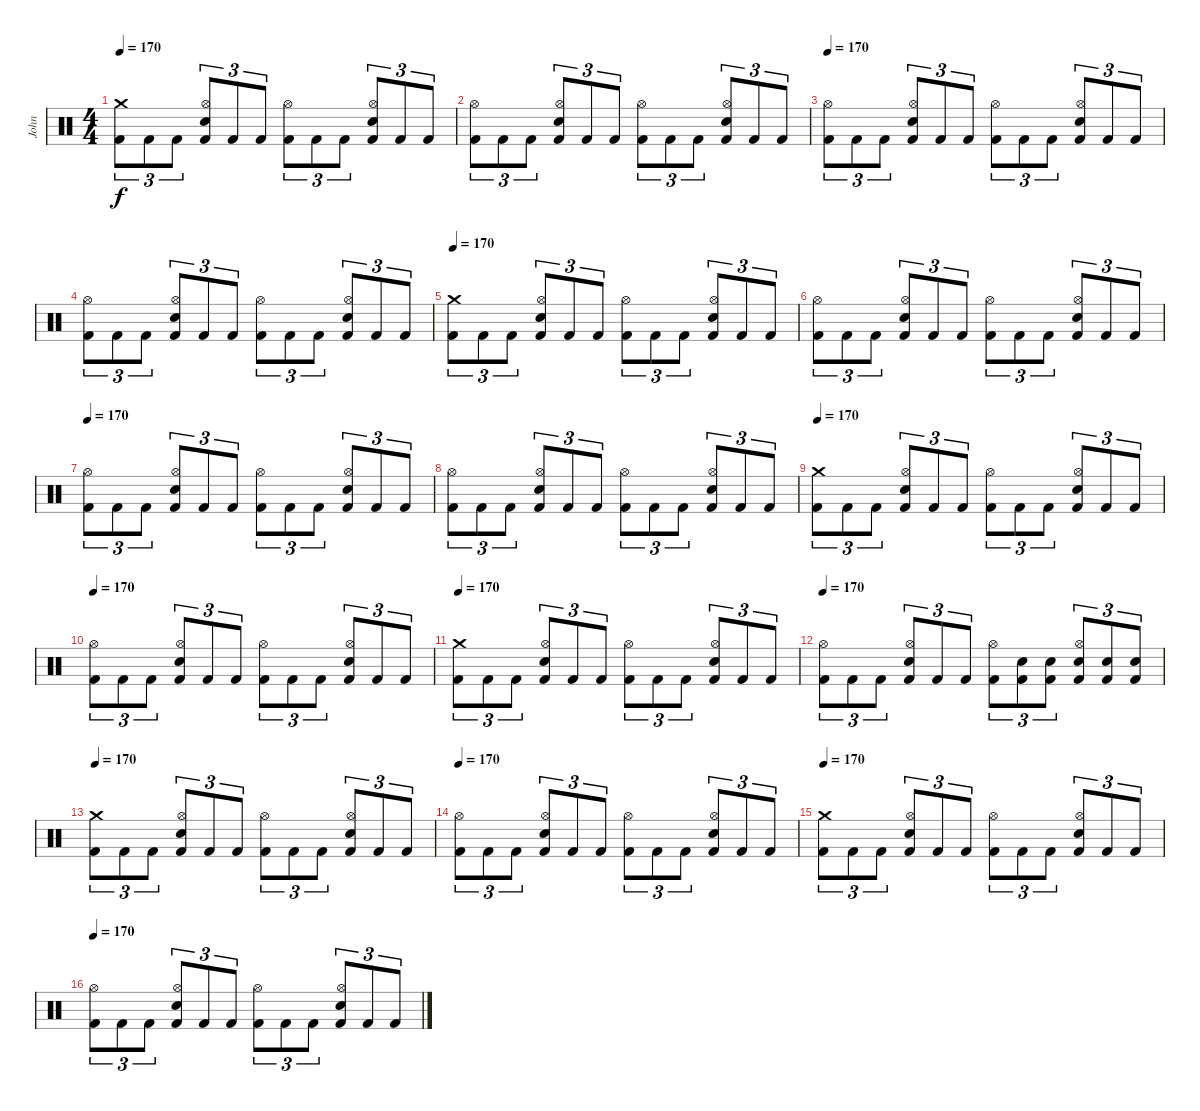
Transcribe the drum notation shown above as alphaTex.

\track ("John " "John ") {instrument percussion}
\staff {score}
\articulation defaults
\ts (4 4)
\tempo 170
\clef neutral
\ks c
("Crash medium (hit)" "Kick (hit) 2").8{tu (3 2) dy f} "Kick (hit) 2".8{tu (3 2)} "Kick (hit) 2".8{tu (3 2)} ("Hi-Hat (open)" "Kick (hit) 2" "Snare (hit) 2").8{tu (3 2)} "Kick (hit) 2".8{tu (3 2)} "Kick (hit) 2".8{tu (3 2)} ("Hi-Hat (open)" "Kick (hit) 2").8{tu (3 2)} "Kick (hit) 2".8{tu (3 2)} "Kick (hit) 2".8{tu (3 2)} ("Hi-Hat (open)" "Kick (hit) 2" "Snare (hit) 2").8{tu (3 2)} "Kick (hit) 2".8{tu (3 2)} "Kick (hit) 2".8{tu (3 2)} |
("Hi-Hat (open)" "Kick (hit) 2").8{tu (3 2)} "Kick (hit) 2".8{tu (3 2)} "Kick (hit) 2".8{tu (3 2)} ("Hi-Hat (open)" "Kick (hit) 2" "Snare (hit) 2").8{tu (3 2)} "Kick (hit) 2".8{tu (3 2)} "Kick (hit) 2".8{tu (3 2)} ("Hi-Hat (open)" "Kick (hit) 2").8{tu (3 2)} "Kick (hit) 2".8{tu (3 2)} "Kick (hit) 2".8{tu (3 2)} ("Hi-Hat (open)" "Kick (hit) 2" "Snare (hit) 2").8{tu (3 2)} "Kick (hit) 2".8{tu (3 2)} "Kick (hit) 2".8{tu (3 2)} |
\tempo 170
("Hi-Hat (open)" "Kick (hit) 2").8{tu (3 2)} "Kick (hit) 2".8{tu (3 2)} "Kick (hit) 2".8{tu (3 2)} ("Hi-Hat (open)" "Kick (hit) 2" "Snare (hit) 2").8{tu (3 2)} "Kick (hit) 2".8{tu (3 2)} "Kick (hit) 2".8{tu (3 2)} ("Hi-Hat (open)" "Kick (hit) 2").8{tu (3 2)} "Kick (hit) 2".8{tu (3 2)} "Kick (hit) 2".8{tu (3 2)} ("Hi-Hat (open)" "Kick (hit) 2" "Snare (hit) 2").8{tu (3 2)} "Kick (hit) 2".8{tu (3 2)} "Kick (hit) 2".8{tu (3 2)} |
("Hi-Hat (open)" "Kick (hit) 2").8{tu (3 2)} "Kick (hit) 2".8{tu (3 2)} "Kick (hit) 2".8{tu (3 2)} ("Hi-Hat (open)" "Kick (hit) 2" "Snare (hit) 2").8{tu (3 2)} "Kick (hit) 2".8{tu (3 2)} "Kick (hit) 2".8{tu (3 2)} ("Hi-Hat (open)" "Kick (hit) 2").8{tu (3 2)} "Kick (hit) 2".8{tu (3 2)} "Kick (hit) 2".8{tu (3 2)} ("Hi-Hat (open)" "Kick (hit) 2" "Snare (hit) 2").8{tu (3 2)} "Kick (hit) 2".8{tu (3 2)} "Kick (hit) 2".8{tu (3 2)} |
\tempo 170
("Crash medium (hit)" "Kick (hit) 2").8{tu (3 2)} "Kick (hit) 2".8{tu (3 2)} "Kick (hit) 2".8{tu (3 2)} ("Hi-Hat (open)" "Kick (hit) 2" "Snare (hit) 2").8{tu (3 2)} "Kick (hit) 2".8{tu (3 2)} "Kick (hit) 2".8{tu (3 2)} ("Hi-Hat (open)" "Kick (hit) 2").8{tu (3 2)} "Kick (hit) 2".8{tu (3 2)} "Kick (hit) 2".8{tu (3 2)} ("Hi-Hat (open)" "Kick (hit) 2" "Snare (hit) 2").8{tu (3 2)} "Kick (hit) 2".8{tu (3 2)} "Kick (hit) 2".8{tu (3 2)} |
("Hi-Hat (open)" "Kick (hit) 2").8{tu (3 2)} "Kick (hit) 2".8{tu (3 2)} "Kick (hit) 2".8{tu (3 2)} ("Hi-Hat (open)" "Kick (hit) 2" "Snare (hit) 2").8{tu (3 2)} "Kick (hit) 2".8{tu (3 2)} "Kick (hit) 2".8{tu (3 2)} ("Hi-Hat (open)" "Kick (hit) 2").8{tu (3 2)} "Kick (hit) 2".8{tu (3 2)} "Kick (hit) 2".8{tu (3 2)} ("Hi-Hat (open)" "Kick (hit) 2" "Snare (hit) 2").8{tu (3 2)} "Kick (hit) 2".8{tu (3 2)} "Kick (hit) 2".8{tu (3 2)} |
\tempo 170
("Hi-Hat (open)" "Kick (hit) 2").8{tu (3 2)} "Kick (hit) 2".8{tu (3 2)} "Kick (hit) 2".8{tu (3 2)} ("Hi-Hat (open)" "Kick (hit) 2" "Snare (hit) 2").8{tu (3 2)} "Kick (hit) 2".8{tu (3 2)} "Kick (hit) 2".8{tu (3 2)} ("Hi-Hat (open)" "Kick (hit) 2").8{tu (3 2)} "Kick (hit) 2".8{tu (3 2)} "Kick (hit) 2".8{tu (3 2)} ("Hi-Hat (open)" "Kick (hit) 2" "Snare (hit) 2").8{tu (3 2)} "Kick (hit) 2".8{tu (3 2)} "Kick (hit) 2".8{tu (3 2)} |
("Hi-Hat (open)" "Kick (hit) 2").8{tu (3 2)} "Kick (hit) 2".8{tu (3 2)} "Kick (hit) 2".8{tu (3 2)} ("Hi-Hat (open)" "Kick (hit) 2" "Snare (hit) 2").8{tu (3 2)} "Kick (hit) 2".8{tu (3 2)} "Kick (hit) 2".8{tu (3 2)} ("Hi-Hat (open)" "Kick (hit) 2").8{tu (3 2)} "Kick (hit) 2".8{tu (3 2)} "Kick (hit) 2".8{tu (3 2)} ("Hi-Hat (open)" "Kick (hit) 2" "Snare (hit) 2").8{tu (3 2)} "Kick (hit) 2".8{tu (3 2)} "Kick (hit) 2".8{tu (3 2)} |
\tempo 170
("Crash medium (hit)" "Kick (hit) 2").8{tu (3 2)} "Kick (hit) 2".8{tu (3 2)} "Kick (hit) 2".8{tu (3 2)} ("Hi-Hat (open)" "Kick (hit) 2" "Snare (hit) 2").8{tu (3 2)} "Kick (hit) 2".8{tu (3 2)} "Kick (hit) 2".8{tu (3 2)} ("Hi-Hat (open)" "Kick (hit) 2").8{tu (3 2)} "Kick (hit) 2".8{tu (3 2)} "Kick (hit) 2".8{tu (3 2)} ("Hi-Hat (open)" "Kick (hit) 2" "Snare (hit) 2").8{tu (3 2)} "Kick (hit) 2".8{tu (3 2)} "Kick (hit) 2".8{tu (3 2)} |
\tempo 170
("Hi-Hat (open)" "Kick (hit) 2").8{tu (3 2)} "Kick (hit) 2".8{tu (3 2)} "Kick (hit) 2".8{tu (3 2)} ("Hi-Hat (open)" "Kick (hit) 2" "Snare (hit) 2").8{tu (3 2)} "Kick (hit) 2".8{tu (3 2)} "Kick (hit) 2".8{tu (3 2)} ("Hi-Hat (open)" "Kick (hit) 2").8{tu (3 2)} "Kick (hit) 2".8{tu (3 2)} "Kick (hit) 2".8{tu (3 2)} ("Hi-Hat (open)" "Kick (hit) 2" "Snare (hit) 2").8{tu (3 2)} "Kick (hit) 2".8{tu (3 2)} "Kick (hit) 2".8{tu (3 2)} |
\tempo 170
("Crash medium (hit)" "Kick (hit) 2").8{tu (3 2)} "Kick (hit) 2".8{tu (3 2)} "Kick (hit) 2".8{tu (3 2)} ("Hi-Hat (open)" "Kick (hit) 2" "Snare (hit) 2").8{tu (3 2)} "Kick (hit) 2".8{tu (3 2)} "Kick (hit) 2".8{tu (3 2)} ("Hi-Hat (open)" "Kick (hit) 2").8{tu (3 2)} "Kick (hit) 2".8{tu (3 2)} "Kick (hit) 2".8{tu (3 2)} ("Hi-Hat (open)" "Kick (hit) 2" "Snare (hit) 2").8{tu (3 2)} "Kick (hit) 2".8{tu (3 2)} "Kick (hit) 2".8{tu (3 2)} |
\tempo 170
("Hi-Hat (open)" "Kick (hit) 2").8{tu (3 2)} "Kick (hit) 2".8{tu (3 2)} "Kick (hit) 2".8{tu (3 2)} ("Hi-Hat (open)" "Kick (hit) 2" "Snare (hit) 2").8{tu (3 2)} "Kick (hit) 2".8{tu (3 2)} "Kick (hit) 2".8{tu (3 2)} ("Hi-Hat (open)" "Kick (hit) 2").8{tu (3 2)} ("Snare (hit) 2" "Kick (hit) 2").8{tu (3 2)} ("Snare (hit) 2" "Kick (hit) 2").8{tu (3 2)} ("Hi-Hat (open)" "Snare (hit) 2" "Kick (hit) 2").8{tu (3 2)} ("Snare (hit) 2" "Kick (hit) 2").8{tu (3 2)} ("Snare (hit) 2" "Kick (hit) 2").8{tu (3 2)} |
\tempo 170
("Crash medium (hit)" "Kick (hit) 2").8{tu (3 2)} "Kick (hit) 2".8{tu (3 2)} "Kick (hit) 2".8{tu (3 2)} ("Hi-Hat (open)" "Kick (hit) 2" "Snare (hit) 2").8{tu (3 2)} "Kick (hit) 2".8{tu (3 2)} "Kick (hit) 2".8{tu (3 2)} ("Hi-Hat (open)" "Kick (hit) 2").8{tu (3 2)} "Kick (hit) 2".8{tu (3 2)} "Kick (hit) 2".8{tu (3 2)} ("Hi-Hat (open)" "Kick (hit) 2" "Snare (hit) 2").8{tu (3 2)} "Kick (hit) 2".8{tu (3 2)} "Kick (hit) 2".8{tu (3 2)} |
\tempo 170
("Hi-Hat (open)" "Kick (hit) 2").8{tu (3 2)} "Kick (hit) 2".8{tu (3 2)} "Kick (hit) 2".8{tu (3 2)} ("Hi-Hat (open)" "Kick (hit) 2" "Snare (hit) 2").8{tu (3 2)} "Kick (hit) 2".8{tu (3 2)} "Kick (hit) 2".8{tu (3 2)} ("Hi-Hat (open)" "Kick (hit) 2").8{tu (3 2)} "Kick (hit) 2".8{tu (3 2)} "Kick (hit) 2".8{tu (3 2)} ("Hi-Hat (open)" "Kick (hit) 2" "Snare (hit) 2").8{tu (3 2)} "Kick (hit) 2".8{tu (3 2)} "Kick (hit) 2".8{tu (3 2)} |
\tempo 170
("Crash medium (hit)" "Kick (hit) 2").8{tu (3 2)} "Kick (hit) 2".8{tu (3 2)} "Kick (hit) 2".8{tu (3 2)} ("Hi-Hat (open)" "Kick (hit) 2" "Snare (hit) 2").8{tu (3 2)} "Kick (hit) 2".8{tu (3 2)} "Kick (hit) 2".8{tu (3 2)} ("Hi-Hat (open)" "Kick (hit) 2").8{tu (3 2)} "Kick (hit) 2".8{tu (3 2)} "Kick (hit) 2".8{tu (3 2)} ("Hi-Hat (open)" "Kick (hit) 2" "Snare (hit) 2").8{tu (3 2)} "Kick (hit) 2".8{tu (3 2)} "Kick (hit) 2".8{tu (3 2)} |
\tempo 170
("Hi-Hat (open)" "Kick (hit) 2").8{tu (3 2)} "Kick (hit) 2".8{tu (3 2)} "Kick (hit) 2".8{tu (3 2)} ("Hi-Hat (open)" "Kick (hit) 2" "Snare (hit) 2").8{tu (3 2)} "Kick (hit) 2".8{tu (3 2)} "Kick (hit) 2".8{tu (3 2)} ("Hi-Hat (open)" "Kick (hit) 2").8{tu (3 2)} "Kick (hit) 2".8{tu (3 2)} "Kick (hit) 2".8{tu (3 2)} ("Hi-Hat (open)" "Kick (hit) 2" "Snare (hit) 2").8{tu (3 2)} "Kick (hit) 2".8{tu (3 2)} "Kick (hit) 2".8{tu (3 2)}
